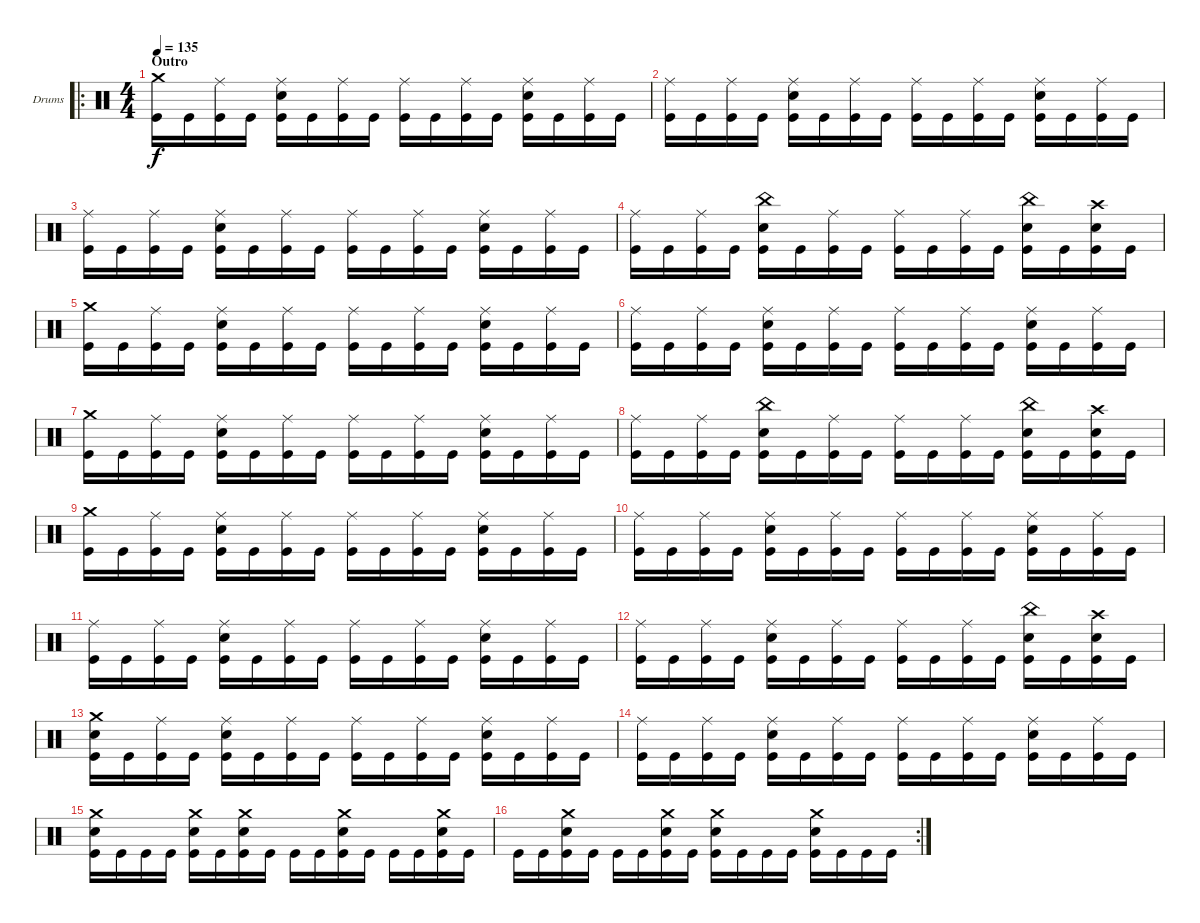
\defaultSystemsLayout 4
\bracketExtendMode groupsimilarinstruments
\firstSystemTrackNameOrientation horizontal
\otherSystemsTrackNameOrientation horizontal
\track ("Drumkit" "Drums") {instrument percussion}
\staff {score}
\articulation defaults
\ro
\ts (4 4)
\section ("" "Outro")
\tempo 135
\clef neutral
\scale
0.547619
\ks c
("Crash medium (hit)" "Kick (hit)").16{dy f} "Kick (hit)".16 ("Ride (middle)" "Kick (hit)").16 "Kick (hit)".16 ("Ride (middle)" "Snare (hit) 2" "Kick (hit)").16 "Kick (hit)".16 ("Ride (middle)" "Kick (hit)").16 "Kick (hit)".16 ("Ride (middle)" "Kick (hit)").16 "Kick (hit)".16 ("Ride (middle)" "Kick (hit)").16 "Kick (hit)".16 ("Ride (middle)" "Snare (hit) 2" "Kick (hit)").16 "Kick (hit)".16 ("Ride (middle)" "Kick (hit)").16 "Kick (hit)".16 |
\scale
0.452381 ("Ride (middle)" "Kick (hit)").16 "Kick (hit)".16 ("Ride (middle)" "Kick (hit)").16 "Kick (hit)".16 ("Ride (middle)" "Snare (hit) 2" "Kick (hit)").16 "Kick (hit)".16 ("Ride (middle)" "Kick (hit)").16 "Kick (hit)".16 ("Ride (middle)" "Kick (hit)").16 "Kick (hit)".16 ("Ride (middle)" "Kick (hit)").16 "Kick (hit)".16 ("Ride (middle)" "Snare (hit) 2" "Kick (hit)").16 "Kick (hit)".16 ("Ride (middle)" "Kick (hit)").16 "Kick (hit)".16 |
\scale
0.5 ("Ride (middle)" "Kick (hit)").16 "Kick (hit)".16 ("Ride (middle)" "Kick (hit)").16 "Kick (hit)".16 ("Ride (middle)" "Snare (hit) 2" "Kick (hit)").16 "Kick (hit)".16 ("Ride (middle)" "Kick (hit)").16 "Kick (hit)".16 ("Ride (middle)" "Kick (hit)").16 "Kick (hit)".16 ("Ride (middle)" "Kick (hit)").16 "Kick (hit)".16 ("Ride (middle)" "Snare (hit) 2" "Kick (hit)").16 "Kick (hit)".16 ("Ride (middle)" "Kick (hit)").16 "Kick (hit)".16 |
\scale
0.5 ("Ride (middle)" "Kick (hit)").16 "Kick (hit)".16 ("Ride (middle)" "Kick (hit)").16 "Kick (hit)".16 ("China (hit)" "Snare (hit) 2" "Kick (hit)").16 "Kick (hit)".16 ("Ride (middle)" "Kick (hit)").16 "Kick (hit)".16 ("Ride (middle)" "Kick (hit)").16 "Kick (hit)".16 ("Ride (middle)" "Kick (hit)").16 "Kick (hit)".16 ("China (hit)" "Snare (hit) 2" "Kick (hit)").16 "Kick (hit)".16 ("Crash high (hit)" "Snare (hit) 2" "Kick (hit)").16 "Kick (hit)".16 |
\scale
0.5 ("Crash medium (hit)" "Kick (hit)").16 "Kick (hit)".16 ("Ride (middle)" "Kick (hit)").16 "Kick (hit)".16 ("Ride (middle)" "Snare (hit) 2" "Kick (hit)").16 "Kick (hit)".16 ("Ride (middle)" "Kick (hit)").16 "Kick (hit)".16 ("Ride (middle)" "Kick (hit)").16 "Kick (hit)".16 ("Ride (middle)" "Kick (hit)").16 "Kick (hit)".16 ("Ride (middle)" "Snare (hit) 2" "Kick (hit)").16 "Kick (hit)".16 ("Ride (middle)" "Kick (hit)").16 "Kick (hit)".16 |
\scale
0.5 ("Ride (middle)" "Kick (hit)").16 "Kick (hit)".16 ("Ride (middle)" "Kick (hit)").16 "Kick (hit)".16 ("Ride (middle)" "Snare (hit) 2" "Kick (hit)").16 "Kick (hit)".16 ("Ride (middle)" "Kick (hit)").16 "Kick (hit)".16 ("Ride (middle)" "Kick (hit)").16 "Kick (hit)".16 ("Ride (middle)" "Kick (hit)").16 "Kick (hit)".16 ("Ride (middle)" "Snare (hit) 2" "Kick (hit)").16 "Kick (hit)".16 ("Ride (middle)" "Kick (hit)").16 "Kick (hit)".16 |
\scale
0.5 ("Crash medium (hit)" "Kick (hit)").16 "Kick (hit)".16 ("Ride (middle)" "Kick (hit)").16 "Kick (hit)".16 ("Ride (middle)" "Snare (hit) 2" "Kick (hit)").16 "Kick (hit)".16 ("Ride (middle)" "Kick (hit)").16 "Kick (hit)".16 ("Ride (middle)" "Kick (hit)").16 "Kick (hit)".16 ("Ride (middle)" "Kick (hit)").16 "Kick (hit)".16 ("Ride (middle)" "Snare (hit) 2" "Kick (hit)").16 "Kick (hit)".16 ("Ride (middle)" "Kick (hit)").16 "Kick (hit)".16 |
\scale
0.5 ("Ride (middle)" "Kick (hit)").16 "Kick (hit)".16 ("Ride (middle)" "Kick (hit)").16 "Kick (hit)".16 ("China (hit)" "Snare (hit) 2" "Kick (hit)").16 "Kick (hit)".16 ("Ride (middle)" "Kick (hit)").16 "Kick (hit)".16 ("Ride (middle)" "Kick (hit)").16 "Kick (hit)".16 ("Ride (middle)" "Kick (hit)").16 "Kick (hit)".16 ("China (hit)" "Snare (hit) 2" "Kick (hit)").16 "Kick (hit)".16 ("Crash high (hit)" "Snare (hit) 2" "Kick (hit)").16 "Kick (hit)".16 |
\scale
0.5 ("Crash medium (hit)" "Kick (hit)").16 "Kick (hit)".16 ("Ride (middle)" "Kick (hit)").16 "Kick (hit)".16 ("Ride (middle)" "Snare (hit) 2" "Kick (hit)").16 "Kick (hit)".16 ("Ride (middle)" "Kick (hit)").16 "Kick (hit)".16 ("Ride (middle)" "Kick (hit)").16 "Kick (hit)".16 ("Ride (middle)" "Kick (hit)").16 "Kick (hit)".16 ("Ride (middle)" "Snare (hit) 2" "Kick (hit)").16 "Kick (hit)".16 ("Ride (middle)" "Kick (hit)").16 "Kick (hit)".16 |
\scale
0.5 ("Ride (middle)" "Kick (hit)").16 "Kick (hit)".16 ("Ride (middle)" "Kick (hit)").16 "Kick (hit)".16 ("Ride (middle)" "Snare (hit) 2" "Kick (hit)").16 "Kick (hit)".16 ("Ride (middle)" "Kick (hit)").16 "Kick (hit)".16 ("Ride (middle)" "Kick (hit)").16 "Kick (hit)".16 ("Ride (middle)" "Kick (hit)").16 "Kick (hit)".16 ("Ride (middle)" "Snare (hit) 2" "Kick (hit)").16 "Kick (hit)".16 ("Ride (middle)" "Kick (hit)").16 "Kick (hit)".16 |
\scale
0.5 ("Ride (middle)" "Kick (hit)").16 "Kick (hit)".16 ("Ride (middle)" "Kick (hit)").16 "Kick (hit)".16 ("Ride (middle)" "Snare (hit) 2" "Kick (hit)").16 "Kick (hit)".16 ("Ride (middle)" "Kick (hit)").16 "Kick (hit)".16 ("Ride (middle)" "Kick (hit)").16 "Kick (hit)".16 ("Ride (middle)" "Kick (hit)").16 "Kick (hit)".16 ("Ride (middle)" "Snare (hit) 2" "Kick (hit)").16 "Kick (hit)".16 ("Ride (middle)" "Kick (hit)").16 "Kick (hit)".16 |
\scale
0.5 ("Ride (middle)" "Kick (hit)").16 "Kick (hit)".16 ("Ride (middle)" "Kick (hit)").16 "Kick (hit)".16 ("Ride (middle)" "Snare (hit) 2" "Kick (hit)").16 "Kick (hit)".16 ("Ride (middle)" "Kick (hit)").16 "Kick (hit)".16 ("Ride (middle)" "Kick (hit)").16 "Kick (hit)".16 ("Ride (middle)" "Kick (hit)").16 "Kick (hit)".16 ("China (hit)" "Snare (hit) 2" "Kick (hit)").16 "Kick (hit)".16 ("Crash high (hit)" "Snare (hit) 2" "Kick (hit)").16 "Kick (hit)".16 |
\scale
0.5 ("Crash medium (hit)" "Snare (hit) 2" "Kick (hit)").16 "Kick (hit)".16 ("Ride (middle)" "Kick (hit)").16 "Kick (hit)".16 ("Ride (middle)" "Snare (hit) 2" "Kick (hit)").16 "Kick (hit)".16 ("Ride (middle)" "Kick (hit)").16 "Kick (hit)".16 ("Ride (middle)" "Kick (hit)").16 "Kick (hit)".16 ("Ride (middle)" "Kick (hit)").16 "Kick (hit)".16 ("Ride (middle)" "Snare (hit) 2" "Kick (hit)").16 "Kick (hit)".16 ("Ride (middle)" "Kick (hit)").16 "Kick (hit)".16 |
\scale
0.5 ("Ride (middle)" "Kick (hit)").16 "Kick (hit)".16 ("Ride (middle)" "Kick (hit)").16 "Kick (hit)".16 ("Ride (middle)" "Snare (hit) 2" "Kick (hit)").16 "Kick (hit)".16 ("Ride (middle)" "Kick (hit)").16 "Kick (hit)".16 ("Ride (middle)" "Kick (hit)").16 "Kick (hit)".16 ("Ride (middle)" "Kick (hit)").16 "Kick (hit)".16 ("Ride (middle)" "Snare (hit) 2" "Kick (hit)").16 "Kick (hit)".16 ("Ride (middle)" "Kick (hit)").16 "Kick (hit)".16 |
\scale
0.475 ("Crash medium (hit)" "Snare (hit) 2" "Kick (hit)").16 "Kick (hit)".16 "Kick (hit)".16 "Kick (hit)".16 ("Crash medium (hit)" "Snare (hit) 2" "Kick (hit)").16 "Kick (hit)".16 ("Crash medium (hit)" "Snare (hit) 2" "Kick (hit)").16 "Kick (hit)".16 "Kick (hit)".16 "Kick (hit)".16 ("Crash medium (hit)" "Snare (hit) 2" "Kick (hit)").16 "Kick (hit)".16 "Kick (hit)".16 "Kick (hit)".16 ("Crash medium (hit)" "Snare (hit) 2" "Kick (hit)").16 "Kick (hit)".16 |
\rc 2
\scale
0.525 "Kick (hit)".16 "Kick (hit)".16 ("Crash medium (hit)" "Snare (hit) 2" "Kick (hit)").16 "Kick (hit)".16 "Kick (hit)".16 "Kick (hit)".16 ("Crash medium (hit)" "Snare (hit) 2" "Kick (hit)").16 "Kick (hit)".16 ("Crash medium (hit)" "Snare (hit) 2" "Kick (hit)").16 "Kick (hit)".16 "Kick (hit)".16 "Kick (hit)".16 ("Crash medium (hit)" "Snare (hit) 2" "Kick (hit)").16 "Kick (hit)".16 "Kick (hit)".16 "Kick (hit)".16
